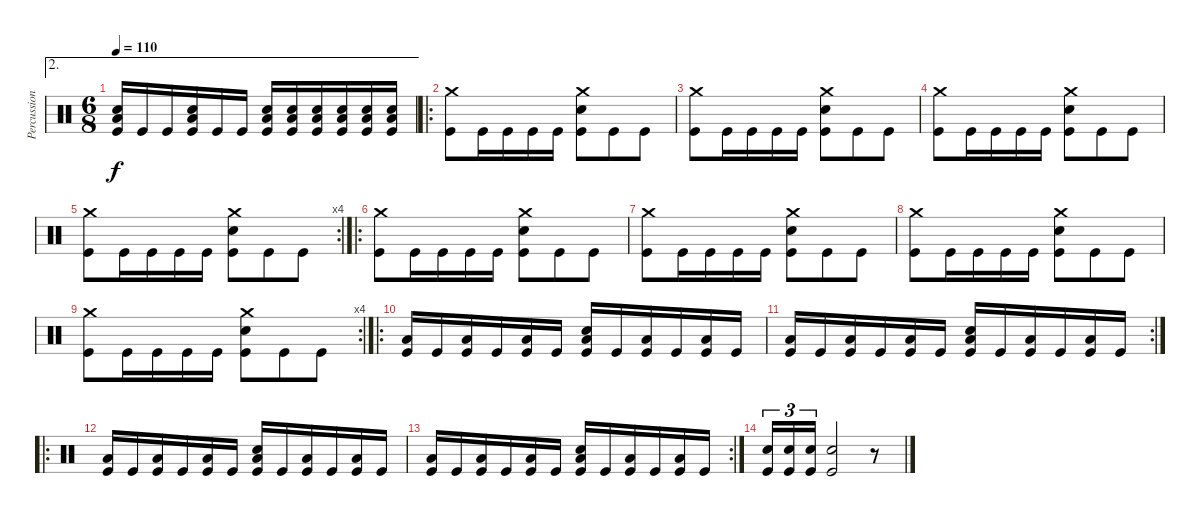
\track ("Percussion" "Percussion") {instrument percussion}
\staff {score}
\articulation defaults
\ae 2
\ts (6 8)
\tempo 110
\clef neutral
\ks c
("Snare (hit) 2" "Low Floor Tom (hit)" "Kick (hit)").16{dy f} "Kick (hit)".16 "Kick (hit)".16 ("Snare (hit) 2" "Low Floor Tom (hit)" "Kick (hit)").16 "Kick (hit)".16 "Kick (hit)".16 ("Snare (hit) 2" "Low Floor Tom (hit)" "Kick (hit)").16 ("Snare (hit) 2" "Low Floor Tom (hit)" "Kick (hit)").16 ("Snare (hit) 2" "Low Floor Tom (hit)" "Kick (hit)").16 ("Snare (hit) 2" "Low Floor Tom (hit)" "Kick (hit)").16 ("Snare (hit) 2" "Low Floor Tom (hit)" "Kick (hit)").16 ("Snare (hit) 2" "Low Floor Tom (hit)" "Kick (hit)").16 |
\ro
("Crash medium (hit)" "Kick (hit)").8 "Kick (hit)".16 "Kick (hit)".16 "Kick (hit)".16 "Kick (hit)".16 ("Crash medium (hit)" "Snare (hit) 2" "Kick (hit)").8 "Kick (hit)".8 "Kick (hit)".8 |
("Crash medium (hit)" "Kick (hit)").8 "Kick (hit)".16 "Kick (hit)".16 "Kick (hit)".16 "Kick (hit)".16 ("Crash medium (hit)" "Snare (hit) 2" "Kick (hit)").8 "Kick (hit)".8 "Kick (hit)".8 |
("Crash medium (hit)" "Kick (hit)").8 "Kick (hit)".16 "Kick (hit)".16 "Kick (hit)".16 "Kick (hit)".16 ("Crash medium (hit)" "Snare (hit) 2" "Kick (hit)").8 "Kick (hit)".8 "Kick (hit)".8 |
\rc 4
("Crash medium (hit)" "Kick (hit)").8 "Kick (hit)".16 "Kick (hit)".16 "Kick (hit)".16 "Kick (hit)".16 ("Crash medium (hit)" "Snare (hit) 2" "Kick (hit)").8 "Kick (hit)".8 "Kick (hit)".8 |
\ro
("Crash medium (hit)" "Kick (hit)").8 "Kick (hit)".16 "Kick (hit)".16 "Kick (hit)".16 "Kick (hit)".16 ("Crash medium (hit)" "Snare (hit) 2" "Kick (hit)").8 "Kick (hit)".8 "Kick (hit)".8 |
("Crash medium (hit)" "Kick (hit)").8 "Kick (hit)".16 "Kick (hit)".16 "Kick (hit)".16 "Kick (hit)".16 ("Crash medium (hit)" "Snare (hit) 2" "Kick (hit)").8 "Kick (hit)".8 "Kick (hit)".8 |
("Crash medium (hit)" "Kick (hit)").8 "Kick (hit)".16 "Kick (hit)".16 "Kick (hit)".16 "Kick (hit)".16 ("Crash medium (hit)" "Snare (hit) 2" "Kick (hit)").8 "Kick (hit)".8 "Kick (hit)".8 |
\rc 4
("Crash medium (hit)" "Kick (hit)").8 "Kick (hit)".16 "Kick (hit)".16 "Kick (hit)".16 "Kick (hit)".16 ("Crash medium (hit)" "Snare (hit) 2" "Kick (hit)").8 "Kick (hit)".8 "Kick (hit)".8 |
\ro
("Low Floor Tom (hit)" "Kick (hit)").16 "Kick (hit)".16 ("Low Floor Tom (hit)" "Kick (hit)").16 "Kick (hit)".16 ("Low Floor Tom (hit)" "Kick (hit)").16 "Kick (hit)".16 ("Snare (hit) 2" "Low Floor Tom (hit)" "Kick (hit)").16 "Kick (hit)".16 ("Low Floor Tom (hit)" "Kick (hit)").16 "Kick (hit)".16 ("Low Floor Tom (hit)" "Kick (hit)").16 "Kick (hit)".16 |
\rc 2
("Low Floor Tom (hit)" "Kick (hit)").16 "Kick (hit)".16 ("Low Floor Tom (hit)" "Kick (hit)").16 "Kick (hit)".16 ("Low Floor Tom (hit)" "Kick (hit)").16 "Kick (hit)".16 ("Snare (hit) 2" "Low Floor Tom (hit)" "Kick (hit)").16 "Kick (hit)".16 ("Low Floor Tom (hit)" "Kick (hit)").16 "Kick (hit)".16 ("Low Floor Tom (hit)" "Kick (hit)").16 "Kick (hit)".16 |
\ro
("Low Floor Tom (hit)" "Kick (hit)").16 "Kick (hit)".16 ("Low Floor Tom (hit)" "Kick (hit)").16 "Kick (hit)".16 ("Low Floor Tom (hit)" "Kick (hit)").16 "Kick (hit)".16 ("Snare (hit) 2" "Low Floor Tom (hit)" "Kick (hit)").16 "Kick (hit)".16 ("Low Floor Tom (hit)" "Kick (hit)").16 "Kick (hit)".16 ("Low Floor Tom (hit)" "Kick (hit)").16 "Kick (hit)".16 |
\rc 2
("Low Floor Tom (hit)" "Kick (hit)").16 "Kick (hit)".16 ("Low Floor Tom (hit)" "Kick (hit)").16 "Kick (hit)".16 ("Low Floor Tom (hit)" "Kick (hit)").16 "Kick (hit)".16 ("Snare (hit) 2" "Low Floor Tom (hit)" "Kick (hit)").16 "Kick (hit)".16 ("Low Floor Tom (hit)" "Kick (hit)").16 "Kick (hit)".16 ("Low Floor Tom (hit)" "Kick (hit)").16 "Kick (hit)".16 |
("Snare (hit) 2" "Kick (hit)").16{tu (3 2)} ("Snare (hit) 2" "Kick (hit)").16{tu (3 2)} ("Snare (hit) 2" "Kick (hit)").16{tu (3 2)} ("Snare (hit) 2" "Kick (hit)").2 r.8
